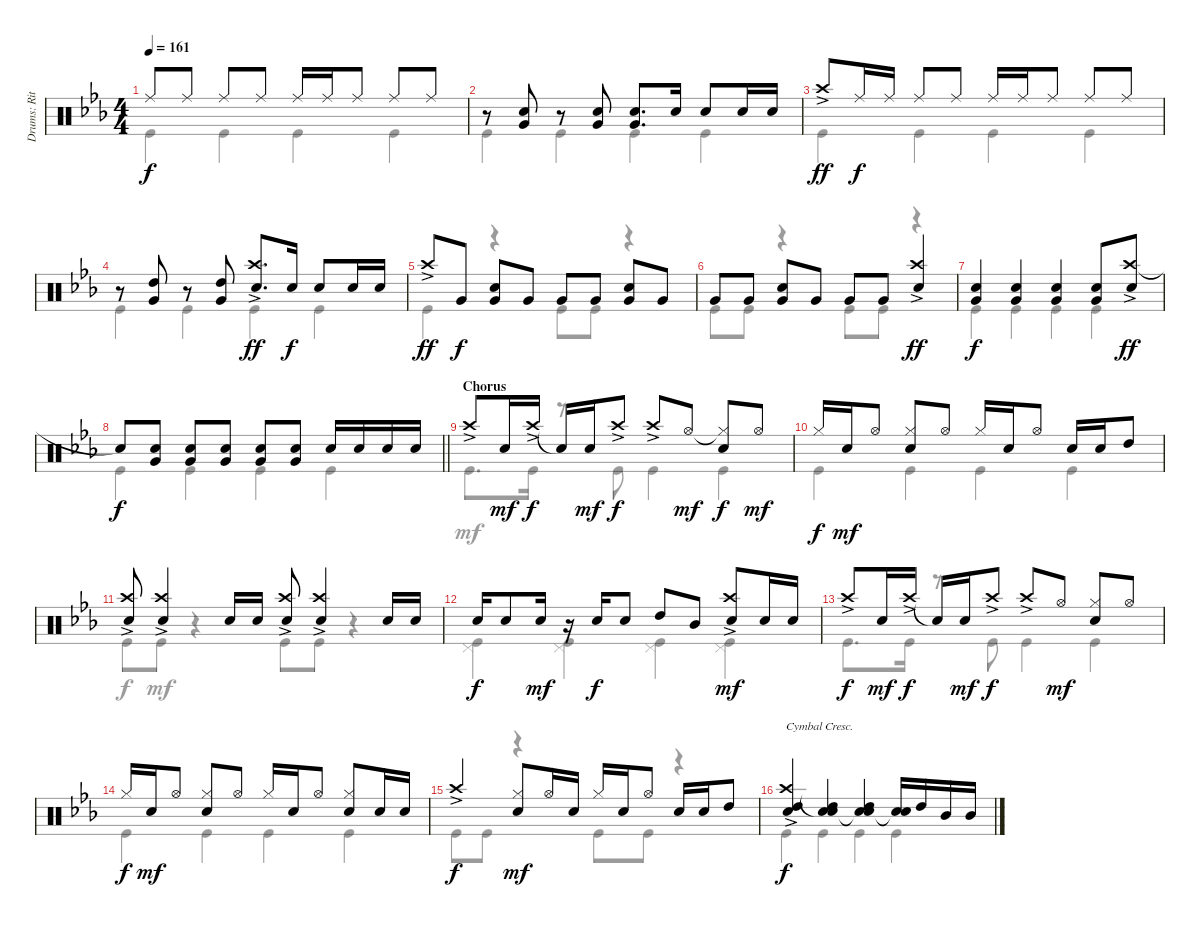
\track ("Drums: Ritsu Tianaka" "Drums: Rit") {instrument percussion}
\staff {score}
\articulation defaults
\voice
\ts (4 4)
\tempo 161
\clef neutral
\ks eb "Ride (middle)".8{dy f} "Ride (middle)".8 "Ride (middle)".8 "Ride (middle)".8 "Ride (middle)".16 "Ride (middle)".16 "Ride (middle)".8 "Ride (middle)".8 "Ride (middle)".8
|
r.8 ("Snare (hit) 2" "Very Low Tom (hit)").8 r.8 ("Snare (hit) 2" "Very Low Tom (hit)").8 ("Snare (hit) 2" "Very Low Tom (hit)").8{d} "Snare (hit) 2".16 "Snare (hit) 2".8 "Snare (hit) 2".16 "Snare (hit) 2".16 |
"Crash high (hit)"{ac}.8{dy ff} "Ride (middle)".16{dy f} "Ride (middle)".16 "Ride (middle)".8 "Ride (middle)".8 "Ride (middle)".16 "Ride (middle)".16 "Ride (middle)".8 "Ride (middle)".8 "Ride (middle)".8 |
r.8 ("High Tom (hit)" "Very Low Tom (hit)").8 r.8 ("High Tom (hit)" "Very Low Tom (hit)").8 ("Crash high (hit)"{ac} "Snare (hit) 2").8{d dy ff} "Snare (hit) 2".16{dy f} "Snare (hit) 2".8 "Snare (hit) 2".16 "Snare (hit) 2".16 |
"Crash high (hit)"{ac}.8{dy ff} "Very Low Tom (hit)".8{dy f} ("Snare (hit) 2" "Very Low Tom (hit)").8 "Very Low Tom (hit)".8 "Very Low Tom (hit)".8 "Very Low Tom (hit)".8 ("Snare (hit) 2" "Very Low Tom (hit)").8 "Very Low Tom (hit)".8 |
"Very Low Tom (hit)".8 "Very Low Tom (hit)".8 ("Snare (hit) 2" "Very Low Tom (hit)").8 "Very Low Tom (hit)".8 "Very Low Tom (hit)".8 "Very Low Tom (hit)".8 ("Crash high (hit)"{ac} "Snare (hit) 2").4{dy ff} |
("Snare (hit) 2" "Very Low Tom (hit)").4{dy f} ("Snare (hit) 2" "Very Low Tom (hit)").4 ("Snare (hit) 2" "Very Low Tom (hit)").4 ("Snare (hit) 2" "Very Low Tom (hit)").8 ("Crash high (hit)"{ac} "Snare (hit) 2").8{dy ff} |
\barLineRight lightlight "Snare (hit)"{t}.8{dy f}
("Snare (hit) 2" "Very Low Tom (hit)").8 ("Snare (hit) 2" "Very Low Tom (hit)").8 ("Snare (hit) 2" "Very Low Tom (hit)").8 ("Snare (hit) 2" "Very Low Tom (hit)").8 ("Snare (hit) 2" "Very Low Tom (hit)").8 "Snare (hit) 2".16 "Snare (hit) 2".16 "Snare (hit) 2".16 "Snare (hit) 2".16 |
\section ("" "Chorus")
"Crash high (hit)"{ac}.8 "Snare (hit) 2".16{dy mf} "Crash high (hit)"{ac}.16{dy f} "Snare (hit)"{t}.16 "Snare (hit) 2".16{dy mf} "Crash high (hit)"{ac}.8{dy f} "Crash high (hit)"{ac}.8 "Hi-Hat (open)".8{dy mf} ("Hi-Hat (closed)"{t} "Snare (hit) 2").8{dy f} "Hi-Hat (open)".8{dy mf} |
"Hi-Hat (closed)".16{dy f} "Snare (hit) 2".16{dy mf} "Hi-Hat (open)".8 ("Hi-Hat (closed)" "Snare (hit) 2").8 "Hi-Hat (open)".8 "Hi-Hat (closed)".16 "Snare (hit) 2".16 "Hi-Hat (open)".8 "Snare (hit) 2".16 "Snare (hit) 2".16 "High Tom (hit)".8 |
("Crash high (hit)"{ac} "Snare (hit) 2").8 ("Crash high (hit)"{ac} "Snare (hit) 2").4 "Snare (hit) 2".16 "Snare (hit) 2".16 ("Crash high (hit)"{ac} "Snare (hit) 2").8 ("Crash high (hit)"{ac} "Snare (hit) 2").4 "Snare (hit) 2".16 "Snare (hit) 2".16 |
"Snare (hit) 2".16{dy f} "Snare (hit) 2".8 "Snare (hit) 2".16{dy mf} r.16 "Snare (hit) 2".16{dy f} "Snare (hit) 2".8 "High Tom (hit)".8 "Mid Tom (hit)".8 ("Crash high (hit)"{ac} "Snare (hit) 2").8{dy mf} "Snare (hit) 2".16 "Snare (hit) 2".16 |
"Crash high (hit)"{ac}.8{dy f} "Snare (hit) 2".16{dy mf} "Crash high (hit)"{ac}.16{dy f} "Snare (hit)"{t}.16 "Snare (hit) 2".16{dy mf} "Crash high (hit)"{ac}.8{dy f} "Crash high (hit)"{ac}.8 "Hi-Hat (open)".8{dy mf} ("Hi-Hat (closed)" "Snare (hit) 2").8 "Hi-Hat (open)".8 |
"Hi-Hat (closed)".16{dy f} "Snare (hit) 2".16{dy mf} "Hi-Hat (open)".8 ("Hi-Hat (closed)" "Snare (hit) 2").8 "Hi-Hat (open)".8 "Hi-Hat (closed)".16 "Snare (hit) 2".16 "Hi-Hat (open)".8 ("Hi-Hat (closed)" "Snare (hit) 2").8 "Snare (hit) 2".16 "Snare (hit) 2".16 |
"Crash high (hit)"{ac}.4{dy f} ("Hi-Hat (closed)" "Snare (hit) 2").8{dy mf} "Hi-Hat (open)".16 "Snare (hit) 2".16 "Hi-Hat (closed)".16 "Snare (hit) 2".16 "Hi-Hat (open)".8 "Snare (hit) 2".16 "Snare (hit) 2".16 "High Tom (hit)".8 |
("Crash high (hit)"{ac} "High Tom (hit)" "Snare (hit) 2").4{txt "Cymbal Cresc." dy f} ("Snare (hit)"{t} "High Tom (hit)" "Snare (hit) 2").4 ("Snare (hit)"{t} "High Tom (hit)" "Snare (hit) 2").4 ("Snare (hit)"{t} "Snare (hit) 2").16 "High Tom (hit)".16 "Mid Tom (hit)".16 "Mid Tom (hit)".16
\voice
\clef neutral
\ottava regular
\simile none
\ks eb "Kick (hit)".4{dy f} "Kick (hit)".4 "Kick (hit)".4 "Kick (hit)".4
|
"Kick (hit)".4 "Kick (hit)".4 "Kick (hit)".4 "Kick (hit)".4 |
"Kick (hit)".4 "Kick (hit)".4 "Kick (hit)".4 "Kick (hit)".4 |
"Kick (hit)".4 "Kick (hit)".4 "Kick (hit)".4 "Kick (hit)".4 |
"Kick (hit)".4 r.4 "Kick (hit)".8 "Kick (hit)".8 r.4 |
"Kick (hit)".8 "Kick (hit)".8 r.4 "Kick (hit)".8 "Kick (hit)".8 r.4 |
"Kick (hit)".4 "Kick (hit)".4 "Kick (hit)".4 "Kick (hit)".4 |
\barLineRight lightlight "Kick (hit)".4 "Kick (hit)".4 "Kick (hit)".4 "Kick (hit)".4
|
"Kick (hit)".8{d dy mf} "Kick (hit)".16 r.8 "Kick (hit)".8 "Kick (hit)".4 "Kick (hit)".4 |
"Kick (hit)".4 "Kick (hit)".4 "Kick (hit)".4 "Kick (hit)".4 |
"Kick (hit)".8{dy f} "Kick (hit)".8{dy mf} r.4 "Kick (hit)".8 "Kick (hit)".8 r.4 |
("Pedal Hi-Hat (hit)" "Kick (hit)").4 ("Pedal Hi-Hat (hit)" "Kick (hit)").4 ("Pedal Hi-Hat (hit)" "Kick (hit)").4 ("Pedal Hi-Hat (hit)" "Kick (hit)").4 |
"Kick (hit)".8{d} "Kick (hit)".16 r.8 "Kick (hit)".8 "Kick (hit)".4 "Kick (hit)".4 |
"Kick (hit)".4 "Kick (hit)".4 "Kick (hit)".4 "Kick (hit)".4 |
"Kick (hit)".8 "Kick (hit)".8 r.4 "Kick (hit)".8 "Kick (hit)".8 r.4 |
"Kick (hit)".4{dy f} "Kick (hit)".4 "Kick (hit)".4 "Kick (hit)".4
